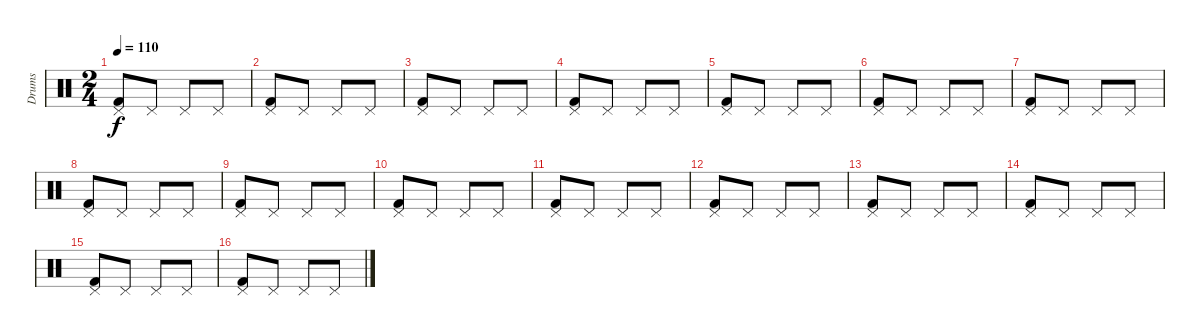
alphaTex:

\track ("Drums" "Drums") {instrument percussion}
\staff {score}
\articulation defaults
\ts (2 4)
\tempo 110
\clef neutral
\ks c
("Kick (hit) 2" "Pedal Hi-Hat (hit)").8{dy f} "Pedal Hi-Hat (hit)".8 "Pedal Hi-Hat (hit)".8 "Pedal Hi-Hat (hit)".8 |
("Kick (hit) 2" "Pedal Hi-Hat (hit)").8 "Pedal Hi-Hat (hit)".8 "Pedal Hi-Hat (hit)".8 "Pedal Hi-Hat (hit)".8 |
("Kick (hit) 2" "Pedal Hi-Hat (hit)").8 "Pedal Hi-Hat (hit)".8 "Pedal Hi-Hat (hit)".8 "Pedal Hi-Hat (hit)".8 |
("Kick (hit) 2" "Pedal Hi-Hat (hit)").8 "Pedal Hi-Hat (hit)".8 "Pedal Hi-Hat (hit)".8 "Pedal Hi-Hat (hit)".8 |
("Kick (hit) 2" "Pedal Hi-Hat (hit)").8 "Pedal Hi-Hat (hit)".8 "Pedal Hi-Hat (hit)".8 "Pedal Hi-Hat (hit)".8 |
("Kick (hit) 2" "Pedal Hi-Hat (hit)").8 "Pedal Hi-Hat (hit)".8 "Pedal Hi-Hat (hit)".8 "Pedal Hi-Hat (hit)".8 |
("Kick (hit) 2" "Pedal Hi-Hat (hit)").8 "Pedal Hi-Hat (hit)".8 "Pedal Hi-Hat (hit)".8 "Pedal Hi-Hat (hit)".8 |
("Kick (hit) 2" "Pedal Hi-Hat (hit)").8 "Pedal Hi-Hat (hit)".8 "Pedal Hi-Hat (hit)".8 "Pedal Hi-Hat (hit)".8 |
("Kick (hit) 2" "Pedal Hi-Hat (hit)").8 "Pedal Hi-Hat (hit)".8 "Pedal Hi-Hat (hit)".8 "Pedal Hi-Hat (hit)".8 |
("Kick (hit) 2" "Pedal Hi-Hat (hit)").8 "Pedal Hi-Hat (hit)".8 "Pedal Hi-Hat (hit)".8 "Pedal Hi-Hat (hit)".8 |
("Kick (hit) 2" "Pedal Hi-Hat (hit)").8 "Pedal Hi-Hat (hit)".8 "Pedal Hi-Hat (hit)".8 "Pedal Hi-Hat (hit)".8 |
("Kick (hit) 2" "Pedal Hi-Hat (hit)").8 "Pedal Hi-Hat (hit)".8 "Pedal Hi-Hat (hit)".8 "Pedal Hi-Hat (hit)".8 |
("Kick (hit) 2" "Pedal Hi-Hat (hit)").8 "Pedal Hi-Hat (hit)".8 "Pedal Hi-Hat (hit)".8 "Pedal Hi-Hat (hit)".8 |
("Kick (hit) 2" "Pedal Hi-Hat (hit)").8 "Pedal Hi-Hat (hit)".8 "Pedal Hi-Hat (hit)".8 "Pedal Hi-Hat (hit)".8 |
("Kick (hit) 2" "Pedal Hi-Hat (hit)").8 "Pedal Hi-Hat (hit)".8 "Pedal Hi-Hat (hit)".8 "Pedal Hi-Hat (hit)".8 |
("Kick (hit) 2" "Pedal Hi-Hat (hit)").8 "Pedal Hi-Hat (hit)".8 "Pedal Hi-Hat (hit)".8 "Pedal Hi-Hat (hit)".8
